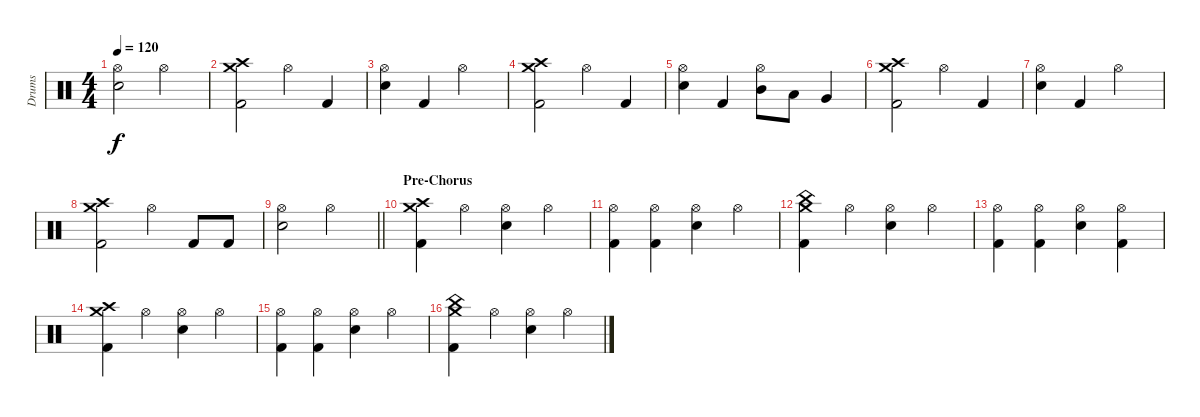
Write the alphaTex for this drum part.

\track ("Drums" "Drums") {instrument percussion}
\staff {score}
\articulation defaults
\ts (4 4)
\tempo 120
\clef neutral
\ks c
("Hi-Hat (open)" "Snare (hit) 2").2{dy f} "Hi-Hat (open)".2 |
("Crash high (hit)" "Crash medium (hit)" "Kick (hit) 2").2 "Hi-Hat (open)".4 "Kick (hit) 2".4 |
("Hi-Hat (open)" "Snare (hit) 2").4 "Kick (hit) 2".4 "Hi-Hat (open)".2 |
("Crash high (hit)" "Crash medium (hit)" "Kick (hit) 2").2 "Hi-Hat (open)".4 "Kick (hit) 2".4 |
("Hi-Hat (open)" "Snare (hit) 2").4 "Kick (hit) 2".4 ("Hi-Hat (open)" "Mid Tom (hit)").8 "Low Tom (hit)".8 "Very Low Tom (hit)".4 |
("Crash high (hit)" "Crash medium (hit)" "Kick (hit) 2").2 "Hi-Hat (open)".4 "Kick (hit) 2".4 |
("Hi-Hat (open)" "Snare (hit) 2").4 "Kick (hit) 2".4 "Hi-Hat (open)".2 |
("Crash high (hit)" "Crash medium (hit)" "Kick (hit) 2").2 "Hi-Hat (open)".4 "Kick (hit) 2".8 "Kick (hit) 2".8 |
\barLineRight lightlight
("Hi-Hat (open)" "Snare (hit) 2").2 "Hi-Hat (open)".2 |
\section ("" "Pre-Chorus")
("Crash high (hit)" "Crash medium (hit)" "Kick (hit) 2").4 "Hi-Hat (open)".4 ("Hi-Hat (open)" "Snare (hit) 2").4 "Hi-Hat (open)".4 |
("Hi-Hat (open)" "Kick (hit) 2").4 ("Hi-Hat (open)" "Kick (hit) 2").4 ("Hi-Hat (open)" "Snare (hit) 2").4 "Hi-Hat (open)".4 |
("Crash medium (hit)" "China (hit)" "Kick (hit) 2").4 "Hi-Hat (open)".4 ("Hi-Hat (open)" "Snare (hit) 2").4 "Hi-Hat (open)".4 |
("Hi-Hat (open)" "Kick (hit) 2").4 ("Hi-Hat (open)" "Kick (hit) 2").4 ("Hi-Hat (open)" "Snare (hit) 2").4 ("Hi-Hat (open)" "Kick (hit) 2").4 |
("Crash high (hit)" "Crash medium (hit)" "Kick (hit) 2").4 "Hi-Hat (open)".4 ("Hi-Hat (open)" "Snare (hit) 2").4 "Hi-Hat (open)".4 |
("Hi-Hat (open)" "Kick (hit) 2").4 ("Hi-Hat (open)" "Kick (hit) 2").4 ("Hi-Hat (open)" "Snare (hit) 2").4 "Hi-Hat (open)".4 |
("Crash medium (hit)" "China (hit)" "Kick (hit) 2").4 "Hi-Hat (open)".4 ("Hi-Hat (open)" "Snare (hit) 2").4 "Hi-Hat (open)".4
